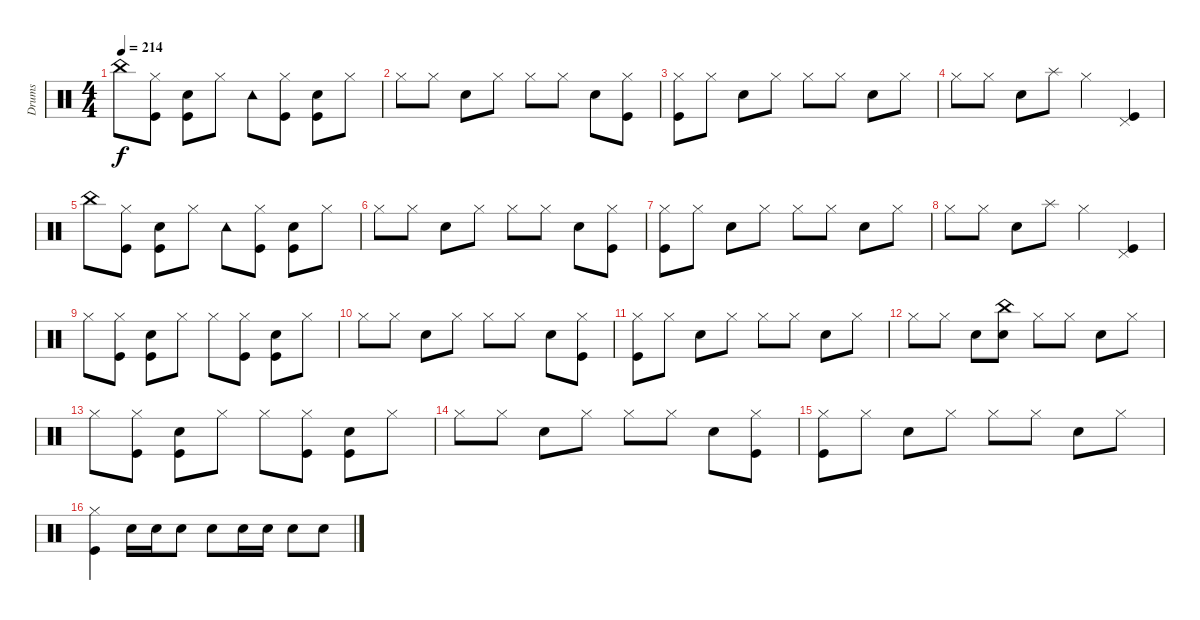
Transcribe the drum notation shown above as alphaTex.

\track ("Drums" "Drums") {instrument percussion}
\staff {score}
\articulation defaults
\ts (4 4)
\tempo 214
\clef neutral
\ks c "China (hit)".8{dy f}
("Hi-Hat (closed)" "Kick (hit)").8 ("Snare (hit) 2" "Kick (hit)").8 "Hi-Hat (closed)".8 "Tambourine (hit)".8 ("Hi-Hat (closed)" "Kick (hit)").8 ("Snare (hit) 2" "Kick (hit)").8 "Hi-Hat (closed)".8 |
"Hi-Hat (closed)".8 "Hi-Hat (closed)".8 "Snare (hit) 2".8 "Hi-Hat (closed)".8 "Hi-Hat (closed)".8 "Hi-Hat (closed)".8 "Snare (hit) 2".8 ("Hi-Hat (closed)" "Kick (hit)").8 |
("Hi-Hat (closed)" "Kick (hit)").8 "Hi-Hat (closed)".8 "Snare (hit) 2".8 "Hi-Hat (closed)".8 "Hi-Hat (closed)".8 "Hi-Hat (closed)".8 "Snare (hit) 2".8 "Hi-Hat (closed)".8 |
"Hi-Hat (closed)".8 "Hi-Hat (closed)".8 "Snare (hit) 2".8 "Splash (hit)".8 "Hi-Hat (closed)".4 ("Pedal Hi-Hat (hit)" "Kick (hit)").4 |
"China (hit)".8 ("Hi-Hat (closed)" "Kick (hit)").8 ("Snare (hit) 2" "Kick (hit)").8 "Hi-Hat (closed)".8 "Tambourine (hit)".8 ("Hi-Hat (closed)" "Kick (hit)").8 ("Snare (hit) 2" "Kick (hit)").8 "Hi-Hat (closed)".8 |
"Hi-Hat (closed)".8 "Hi-Hat (closed)".8 "Snare (hit) 2".8 "Hi-Hat (closed)".8 "Hi-Hat (closed)".8 "Hi-Hat (closed)".8 "Snare (hit) 2".8 ("Hi-Hat (closed)" "Kick (hit)").8 |
("Hi-Hat (closed)" "Kick (hit)").8 "Hi-Hat (closed)".8 "Snare (hit) 2".8 "Hi-Hat (closed)".8 "Hi-Hat (closed)".8 "Hi-Hat (closed)".8 "Snare (hit) 2".8 "Hi-Hat (closed)".8 |
"Hi-Hat (closed)".8 "Hi-Hat (closed)".8 "Snare (hit) 2".8 "Splash (hit)".8 "Hi-Hat (closed)".4 ("Pedal Hi-Hat (hit)" "Kick (hit)").4 |
"Hi-Hat (closed)".8 ("Hi-Hat (closed)" "Kick (hit)").8 ("Snare (hit) 2" "Kick (hit)").8 "Hi-Hat (closed)".8 "Hi-Hat (closed)".8 ("Hi-Hat (closed)" "Kick (hit)").8 ("Snare (hit) 2" "Kick (hit)").8 "Hi-Hat (closed)".8 |
"Hi-Hat (closed)".8 "Hi-Hat (closed)".8 "Snare (hit) 2".8 "Hi-Hat (closed)".8 "Hi-Hat (closed)".8 "Hi-Hat (closed)".8 "Snare (hit) 2".8 ("Hi-Hat (closed)" "Kick (hit)").8 |
("Hi-Hat (closed)" "Kick (hit)").8 "Hi-Hat (closed)".8 "Snare (hit) 2".8 "Hi-Hat (closed)".8 "Hi-Hat (closed)".8 "Hi-Hat (closed)".8 "Snare (hit) 2".8 "Hi-Hat (closed)".8 |
"Hi-Hat (closed)".8 "Hi-Hat (closed)".8 "Snare (hit) 2".8 ("China (hit)" "Snare (hit) 2").8 "Hi-Hat (closed)".8 "Hi-Hat (closed)".8 "Snare (hit) 2".8 "Hi-Hat (closed)".8 |
"Hi-Hat (closed)".8 ("Hi-Hat (closed)" "Kick (hit)").8 ("Snare (hit) 2" "Kick (hit)").8 "Hi-Hat (closed)".8 "Hi-Hat (closed)".8 ("Hi-Hat (closed)" "Kick (hit)").8 ("Snare (hit) 2" "Kick (hit)").8 "Hi-Hat (closed)".8 |
"Hi-Hat (closed)".8 "Hi-Hat (closed)".8 "Snare (hit) 2".8 "Hi-Hat (closed)".8 "Hi-Hat (closed)".8 "Hi-Hat (closed)".8 "Snare (hit) 2".8 ("Hi-Hat (closed)" "Kick (hit)").8 |
("Hi-Hat (closed)" "Kick (hit)").8 "Hi-Hat (closed)".8 "Snare (hit) 2".8 "Hi-Hat (closed)".8 "Hi-Hat (closed)".8 "Hi-Hat (closed)".8 "Snare (hit) 2".8 "Hi-Hat (closed)".8 |
("Hi-Hat (closed)" "Kick (hit)").4 "Snare (hit) 2".16 "Snare (hit) 2".16 "Snare (hit) 2".8 "Snare (hit) 2".8 "Snare (hit) 2".16 "Snare (hit) 2".16 "Snare (hit) 2".8 "Snare (hit) 2".8
